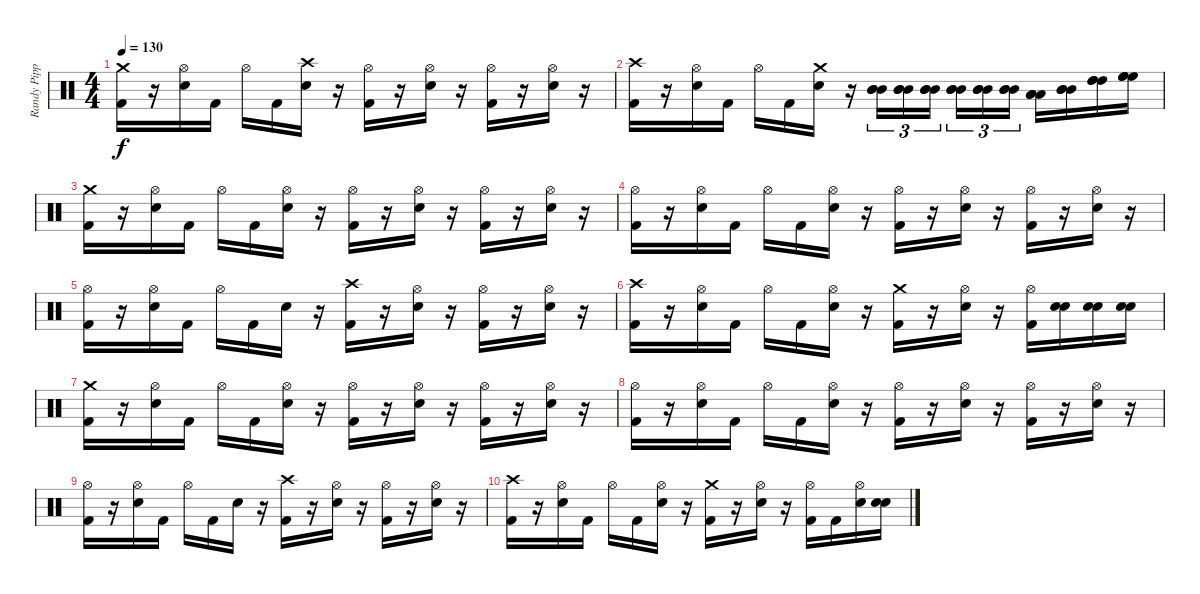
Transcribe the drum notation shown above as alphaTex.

\track ("Randy Pipper" "Randy Pipp") {instrument percussion}
\staff {score}
\articulation defaults
\ts (4 4)
\tempo 130
\clef neutral
\ks c
("Crash medium (hit)" "Kick (hit) 2").16{dy f} r.16 ("Hi-Hat (open)" "Snare (hit) 2").16 "Kick (hit) 2".16 "Hi-Hat (open)".16 "Kick (hit) 2".16 ("Crash high (hit)" "Snare (hit) 2").16 r.16 ("Hi-Hat (open)" "Kick (hit) 2").16 r.16 ("Hi-Hat (open)" "Snare (hit) 2").16 r.16 ("Hi-Hat (open)" "Kick (hit) 2").16 r.16 ("Hi-Hat (open)" "Snare (hit) 2").16 r.16 |
("Crash high (hit)" "Kick (hit) 2").16 r.16 ("Hi-Hat (open)" "Snare (hit) 2").16 "Kick (hit) 2".16 "Hi-Hat (open)".16 "Kick (hit) 2".16 ("Crash medium (hit)" "Snare (hit) 2").16 r.16 ("Mid Tom (hit)" "Mid Tom (hit)" "Mid Tom (hit)").16{tu (3 2)} ("Mid Tom (hit)" "Mid Tom (hit)" "Mid Tom (hit)").16{tu (3 2)} ("Mid Tom (hit)" "Mid Tom (hit)" "Mid Tom (hit)").16{tu (3 2)} ("Mid Tom (hit)" "Mid Tom (hit)" "Mid Tom (hit)").16{tu (3 2)} ("Mid Tom (hit)" "Mid Tom (hit)" "Mid Tom (hit)").16{tu (3 2)} ("Mid Tom (hit)" "Mid Tom (hit)" "Mid Tom (hit)").16{tu (3 2)} ("Low Tom (hit)" "Low Tom (hit)" "Low Tom (hit)").16 ("Mid Tom (hit)" "Mid Tom (hit)" "Mid Tom (hit)").16 ("High Tom (hit)" "High Tom (hit)" "High Tom (hit)").16 ("High Floor Tom (hit)" "High Floor Tom (hit)" "High Floor Tom (hit)").16 |
("Crash medium (hit)" "Kick (hit) 2").16 r.16 ("Hi-Hat (open)" "Snare (hit) 2").16 "Kick (hit) 2".16 "Hi-Hat (open)".16 "Kick (hit) 2".16 ("Hi-Hat (open)" "Snare (hit) 2").16 r.16 ("Hi-Hat (open)" "Kick (hit) 2").16 r.16 ("Hi-Hat (open)" "Snare (hit) 2").16 r.16 ("Hi-Hat (open)" "Kick (hit) 2").16 r.16 ("Hi-Hat (open)" "Snare (hit) 2").16 r.16 |
("Hi-Hat (open)" "Kick (hit) 2").16 r.16 ("Hi-Hat (open)" "Snare (hit) 2").16 "Kick (hit) 2".16 "Hi-Hat (open)".16 "Kick (hit) 2".16 ("Hi-Hat (open)" "Snare (hit) 2").16 r.16 ("Hi-Hat (open)" "Kick (hit) 2").16 r.16 ("Hi-Hat (open)" "Snare (hit) 2").16 r.16 ("Hi-Hat (open)" "Kick (hit) 2").16 r.16 ("Hi-Hat (open)" "Snare (hit) 2").16 r.16 |
("Hi-Hat (open)" "Kick (hit) 2").16 r.16 ("Hi-Hat (open)" "Snare (hit) 2").16 "Kick (hit) 2".16 "Hi-Hat (open)".16 "Kick (hit) 2".16 "Snare (hit) 2".16 r.16 ("Crash high (hit)" "Kick (hit) 2").16 r.16 ("Hi-Hat (open)" "Snare (hit) 2").16 r.16 ("Hi-Hat (open)" "Kick (hit) 2").16 r.16 ("Hi-Hat (open)" "Snare (hit) 2").16 r.16 |
("Crash high (hit)" "Kick (hit) 2").16 r.16 ("Hi-Hat (open)" "Snare (hit) 2").16 "Kick (hit) 2".16 "Hi-Hat (open)".16 "Kick (hit) 2".16 ("Hi-Hat (open)" "Snare (hit) 2").16 r.16 ("Crash medium (hit)" "Kick (hit) 2").16 r.16 ("Hi-Hat (open)" "Snare (hit) 2").16 r.16 ("Hi-Hat (open)" "Kick (hit) 2").16 ("Snare (hit) 2" "Snare (hit) 2").16 ("Snare (hit) 2" "Snare (hit) 2").16 ("Snare (hit) 2" "Snare (hit) 2").16 |
("Crash medium (hit)" "Kick (hit) 2").16 r.16 ("Hi-Hat (open)" "Snare (hit) 2").16 "Kick (hit) 2".16 "Hi-Hat (open)".16 "Kick (hit) 2".16 ("Hi-Hat (open)" "Snare (hit) 2").16 r.16 ("Hi-Hat (open)" "Kick (hit) 2").16 r.16 ("Hi-Hat (open)" "Snare (hit) 2").16 r.16 ("Hi-Hat (open)" "Kick (hit) 2").16 r.16 ("Hi-Hat (open)" "Snare (hit) 2").16 r.16 |
("Hi-Hat (open)" "Kick (hit) 2").16 r.16 ("Hi-Hat (open)" "Snare (hit) 2").16 "Kick (hit) 2".16 "Hi-Hat (open)".16 "Kick (hit) 2".16 ("Hi-Hat (open)" "Snare (hit) 2").16 r.16 ("Hi-Hat (open)" "Kick (hit) 2").16 r.16 ("Hi-Hat (open)" "Snare (hit) 2").16 r.16 ("Hi-Hat (open)" "Kick (hit) 2").16 r.16 ("Hi-Hat (open)" "Snare (hit) 2").16 r.16 |
("Hi-Hat (open)" "Kick (hit) 2").16 r.16 ("Hi-Hat (open)" "Snare (hit) 2").16 "Kick (hit) 2".16 "Hi-Hat (open)".16 "Kick (hit) 2".16 "Snare (hit) 2".16 r.16 ("Crash high (hit)" "Kick (hit) 2").16 r.16 ("Hi-Hat (open)" "Snare (hit) 2").16 r.16 ("Hi-Hat (open)" "Kick (hit) 2").16 r.16 ("Hi-Hat (open)" "Snare (hit) 2").16 r.16 |
("Crash high (hit)" "Kick (hit) 2").16 r.16 ("Hi-Hat (open)" "Snare (hit) 2").16 "Kick (hit) 2".16 "Hi-Hat (open)".16 "Kick (hit) 2".16 ("Hi-Hat (open)" "Snare (hit) 2").16 r.16 ("Crash medium (hit)" "Kick (hit) 2").16 r.16 ("Hi-Hat (open)" "Snare (hit) 2").16 r.16 ("Hi-Hat (open)" "Kick (hit) 2").16 "Kick (hit) 2".16 ("Hi-Hat (open)" "Snare (hit) 2").16 ("Snare (hit) 2" "Snare (hit) 2").16
